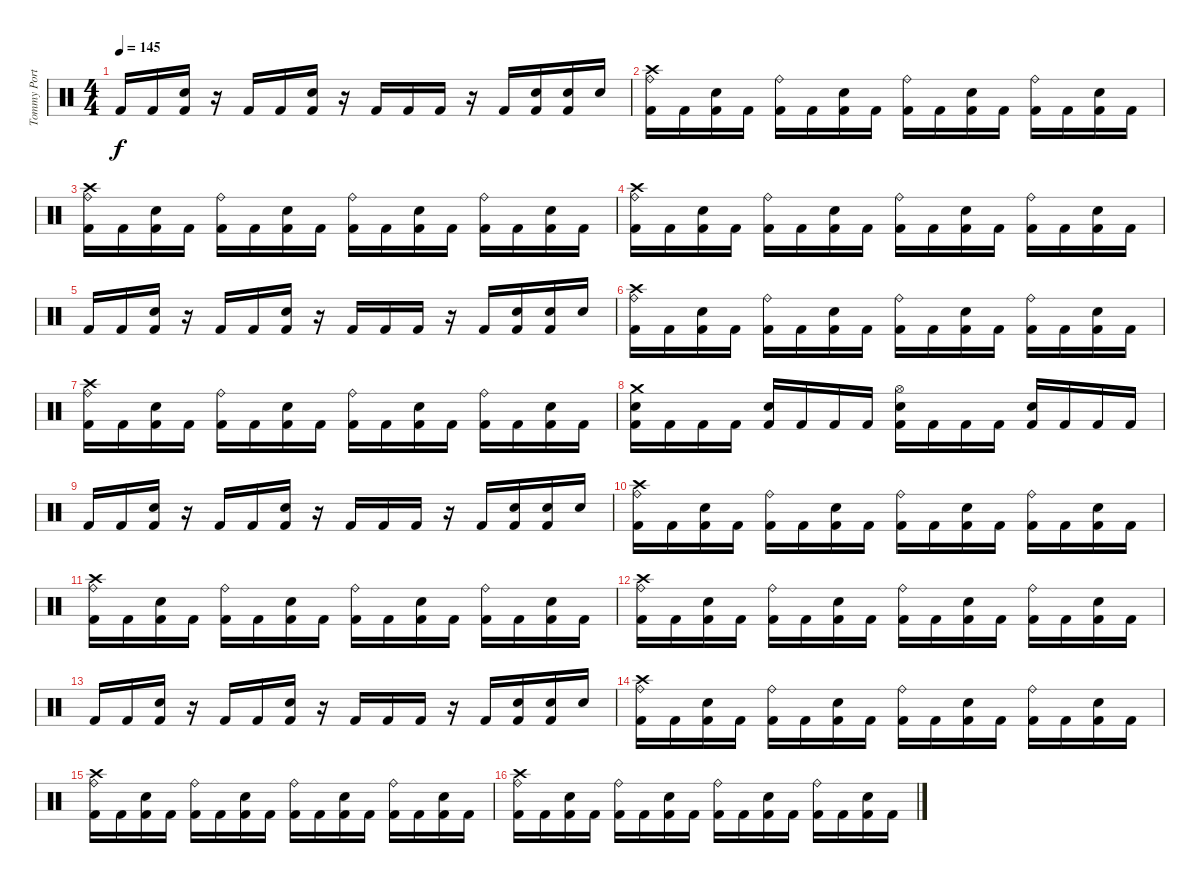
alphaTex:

\track ("Tommy Portino" "Tommy Port") {instrument percussion}
\staff {score}
\articulation defaults
\ts (4 4)
\tempo 145
\clef neutral
\ks c "Kick (hit) 2".16{dy f} "Kick (hit) 2".16
("Kick (hit) 2" "Electric Snare (hit)").16 r.16 "Kick (hit) 2".16 "Kick (hit) 2".16 ("Kick (hit) 2" "Electric Snare (hit)").16 r.16 "Kick (hit) 2".16 "Kick (hit) 2".16 "Kick (hit) 2".16 r.16 "Kick (hit) 2".16 ("Kick (hit) 2" "Electric Snare (hit)").16 ("Kick (hit) 2" "Electric Snare (hit)").16 "Electric Snare (hit)".16 |
("Kick (hit) 2" "Ride (bell)" "Crash high (hit)").16 "Kick (hit) 2".16 ("Kick (hit) 2" "Electric Snare (hit)").16 "Kick (hit) 2".16 ("Kick (hit) 2" "Ride (bell)").16 "Kick (hit) 2".16 ("Kick (hit) 2" "Electric Snare (hit)").16 "Kick (hit) 2".16 ("Kick (hit) 2" "Ride (bell)").16 "Kick (hit) 2".16 ("Kick (hit) 2" "Electric Snare (hit)").16 "Kick (hit) 2".16 ("Kick (hit) 2" "Ride (bell)").16 "Kick (hit) 2".16 ("Kick (hit) 2" "Electric Snare (hit)").16 "Kick (hit) 2".16 |
("Kick (hit) 2" "Ride (bell)" "Crash high (hit)").16 "Kick (hit) 2".16 ("Kick (hit) 2" "Electric Snare (hit)").16 "Kick (hit) 2".16 ("Kick (hit) 2" "Ride (bell)").16 "Kick (hit) 2".16 ("Kick (hit) 2" "Electric Snare (hit)").16 "Kick (hit) 2".16 ("Kick (hit) 2" "Ride (bell)").16 "Kick (hit) 2".16 ("Kick (hit) 2" "Electric Snare (hit)").16 "Kick (hit) 2".16 ("Kick (hit) 2" "Ride (bell)").16 "Kick (hit) 2".16 ("Kick (hit) 2" "Electric Snare (hit)").16 "Kick (hit) 2".16 |
("Kick (hit) 2" "Ride (bell)" "Crash high (hit)").16 "Kick (hit) 2".16 ("Kick (hit) 2" "Electric Snare (hit)").16 "Kick (hit) 2".16 ("Kick (hit) 2" "Ride (bell)").16 "Kick (hit) 2".16 ("Kick (hit) 2" "Electric Snare (hit)").16 "Kick (hit) 2".16 ("Kick (hit) 2" "Ride (bell)").16 "Kick (hit) 2".16 ("Kick (hit) 2" "Electric Snare (hit)").16 "Kick (hit) 2".16 ("Kick (hit) 2" "Ride (bell)").16 "Kick (hit) 2".16 ("Kick (hit) 2" "Electric Snare (hit)").16 "Kick (hit) 2".16 |
"Kick (hit) 2".16 "Kick (hit) 2".16 ("Kick (hit) 2" "Electric Snare (hit)").16 r.16 "Kick (hit) 2".16 "Kick (hit) 2".16 ("Kick (hit) 2" "Electric Snare (hit)").16 r.16 "Kick (hit) 2".16 "Kick (hit) 2".16 "Kick (hit) 2".16 r.16 "Kick (hit) 2".16 ("Kick (hit) 2" "Electric Snare (hit)").16 ("Kick (hit) 2" "Electric Snare (hit)").16 "Electric Snare (hit)".16 |
("Kick (hit) 2" "Ride (bell)" "Crash high (hit)").16 "Kick (hit) 2".16 ("Kick (hit) 2" "Electric Snare (hit)").16 "Kick (hit) 2".16 ("Kick (hit) 2" "Ride (bell)").16 "Kick (hit) 2".16 ("Kick (hit) 2" "Electric Snare (hit)").16 "Kick (hit) 2".16 ("Kick (hit) 2" "Ride (bell)").16 "Kick (hit) 2".16 ("Kick (hit) 2" "Electric Snare (hit)").16 "Kick (hit) 2".16 ("Kick (hit) 2" "Ride (bell)").16 "Kick (hit) 2".16 ("Kick (hit) 2" "Electric Snare (hit)").16 "Kick (hit) 2".16 |
("Kick (hit) 2" "Ride (bell)" "Crash high (hit)").16 "Kick (hit) 2".16 ("Kick (hit) 2" "Electric Snare (hit)").16 "Kick (hit) 2".16 ("Kick (hit) 2" "Ride (bell)").16 "Kick (hit) 2".16 ("Kick (hit) 2" "Electric Snare (hit)").16 "Kick (hit) 2".16 ("Kick (hit) 2" "Ride (bell)").16 "Kick (hit) 2".16 ("Kick (hit) 2" "Electric Snare (hit)").16 "Kick (hit) 2".16 ("Kick (hit) 2" "Ride (bell)").16 "Kick (hit) 2".16 ("Kick (hit) 2" "Electric Snare (hit)").16 "Kick (hit) 2".16 |
("Kick (hit) 2" "Electric Snare (hit)" "Crash medium (hit)").16 "Kick (hit) 2".16 "Kick (hit) 2".16 "Kick (hit) 2".16 ("Kick (hit) 2" "Electric Snare (hit)").16 "Kick (hit) 2".16 "Kick (hit) 2".16 "Kick (hit) 2".16 ("Kick (hit) 2" "Electric Snare (hit)" "Hi-Hat (open)").16 "Kick (hit) 2".16 "Kick (hit) 2".16 "Kick (hit) 2".16 ("Kick (hit) 2" "Electric Snare (hit)").16 "Kick (hit) 2".16 "Kick (hit) 2".16 "Kick (hit) 2".16 |
"Kick (hit) 2".16 "Kick (hit) 2".16 ("Kick (hit) 2" "Electric Snare (hit)").16 r.16 "Kick (hit) 2".16 "Kick (hit) 2".16 ("Kick (hit) 2" "Electric Snare (hit)").16 r.16 "Kick (hit) 2".16 "Kick (hit) 2".16 "Kick (hit) 2".16 r.16 "Kick (hit) 2".16 ("Kick (hit) 2" "Electric Snare (hit)").16 ("Kick (hit) 2" "Electric Snare (hit)").16 "Electric Snare (hit)".16 |
("Kick (hit) 2" "Ride (bell)" "Crash high (hit)").16 "Kick (hit) 2".16 ("Kick (hit) 2" "Electric Snare (hit)").16 "Kick (hit) 2".16 ("Kick (hit) 2" "Ride (bell)").16 "Kick (hit) 2".16 ("Kick (hit) 2" "Electric Snare (hit)").16 "Kick (hit) 2".16 ("Kick (hit) 2" "Ride (bell)").16 "Kick (hit) 2".16 ("Kick (hit) 2" "Electric Snare (hit)").16 "Kick (hit) 2".16 ("Kick (hit) 2" "Ride (bell)").16 "Kick (hit) 2".16 ("Kick (hit) 2" "Electric Snare (hit)").16 "Kick (hit) 2".16 |
("Kick (hit) 2" "Ride (bell)" "Crash high (hit)").16 "Kick (hit) 2".16 ("Kick (hit) 2" "Electric Snare (hit)").16 "Kick (hit) 2".16 ("Kick (hit) 2" "Ride (bell)").16 "Kick (hit) 2".16 ("Kick (hit) 2" "Electric Snare (hit)").16 "Kick (hit) 2".16 ("Kick (hit) 2" "Ride (bell)").16 "Kick (hit) 2".16 ("Kick (hit) 2" "Electric Snare (hit)").16 "Kick (hit) 2".16 ("Kick (hit) 2" "Ride (bell)").16 "Kick (hit) 2".16 ("Kick (hit) 2" "Electric Snare (hit)").16 "Kick (hit) 2".16 |
("Kick (hit) 2" "Ride (bell)" "Crash high (hit)").16 "Kick (hit) 2".16 ("Kick (hit) 2" "Electric Snare (hit)").16 "Kick (hit) 2".16 ("Kick (hit) 2" "Ride (bell)").16 "Kick (hit) 2".16 ("Kick (hit) 2" "Electric Snare (hit)").16 "Kick (hit) 2".16 ("Kick (hit) 2" "Ride (bell)").16 "Kick (hit) 2".16 ("Kick (hit) 2" "Electric Snare (hit)").16 "Kick (hit) 2".16 ("Kick (hit) 2" "Ride (bell)").16 "Kick (hit) 2".16 ("Kick (hit) 2" "Electric Snare (hit)").16 "Kick (hit) 2".16 |
"Kick (hit) 2".16 "Kick (hit) 2".16 ("Kick (hit) 2" "Electric Snare (hit)").16 r.16 "Kick (hit) 2".16 "Kick (hit) 2".16 ("Kick (hit) 2" "Electric Snare (hit)").16 r.16 "Kick (hit) 2".16 "Kick (hit) 2".16 "Kick (hit) 2".16 r.16 "Kick (hit) 2".16 ("Kick (hit) 2" "Electric Snare (hit)").16 ("Kick (hit) 2" "Electric Snare (hit)").16 "Electric Snare (hit)".16 |
("Kick (hit) 2" "Ride (bell)" "Crash high (hit)").16 "Kick (hit) 2".16 ("Kick (hit) 2" "Electric Snare (hit)").16 "Kick (hit) 2".16 ("Kick (hit) 2" "Ride (bell)").16 "Kick (hit) 2".16 ("Kick (hit) 2" "Electric Snare (hit)").16 "Kick (hit) 2".16 ("Kick (hit) 2" "Ride (bell)").16 "Kick (hit) 2".16 ("Kick (hit) 2" "Electric Snare (hit)").16 "Kick (hit) 2".16 ("Kick (hit) 2" "Ride (bell)").16 "Kick (hit) 2".16 ("Kick (hit) 2" "Electric Snare (hit)").16 "Kick (hit) 2".16 |
("Kick (hit) 2" "Ride (bell)" "Crash high (hit)").16 "Kick (hit) 2".16 ("Kick (hit) 2" "Electric Snare (hit)").16 "Kick (hit) 2".16 ("Kick (hit) 2" "Ride (bell)").16 "Kick (hit) 2".16 ("Kick (hit) 2" "Electric Snare (hit)").16 "Kick (hit) 2".16 ("Kick (hit) 2" "Ride (bell)").16 "Kick (hit) 2".16 ("Kick (hit) 2" "Electric Snare (hit)").16 "Kick (hit) 2".16 ("Kick (hit) 2" "Ride (bell)").16 "Kick (hit) 2".16 ("Kick (hit) 2" "Electric Snare (hit)").16 "Kick (hit) 2".16 |
("Kick (hit) 2" "Ride (bell)" "Crash high (hit)").16 "Kick (hit) 2".16 ("Kick (hit) 2" "Electric Snare (hit)").16 "Kick (hit) 2".16 ("Kick (hit) 2" "Ride (bell)").16 "Kick (hit) 2".16 ("Kick (hit) 2" "Electric Snare (hit)").16 "Kick (hit) 2".16 ("Kick (hit) 2" "Ride (bell)").16 "Kick (hit) 2".16 ("Kick (hit) 2" "Electric Snare (hit)").16 "Kick (hit) 2".16 ("Kick (hit) 2" "Ride (bell)").16 "Kick (hit) 2".16 ("Kick (hit) 2" "Electric Snare (hit)").16 "Kick (hit) 2".16
